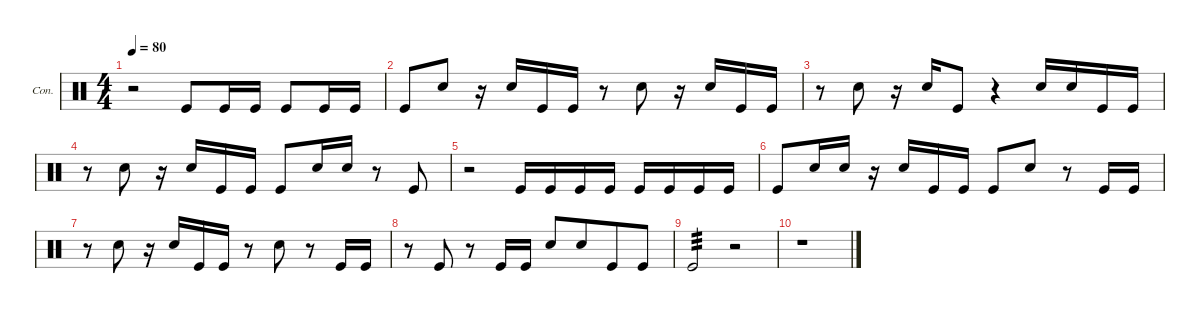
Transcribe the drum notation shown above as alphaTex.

\defaultSystemsLayout 4
\hideDynamics
\bracketExtendMode groupsimilarinstruments
\firstSystemTrackNameOrientation horizontal
\otherSystemsTrackNameOrientation horizontal
\track ("Congas" "Con.") {multiBarRest instrument percussion}
\staff {score}
\articulation defaults
\ts (4 4)
\tempo 80
\clef neutral
\ks c
r.2{dy mf} "Kick (hit)".8 "Kick (hit)".16 "Kick (hit)".16 "Kick (hit)".8 "Kick (hit)".16 "Kick (hit)".16 |
"Kick (hit)".8 "Snare (hit) 2".8 r.16 "Snare (hit) 2".16 "Kick (hit)".16 "Kick (hit)".16 r.8 "Snare (hit) 2".8 r.16 "Snare (hit) 2".16 "Kick (hit)".16 "Kick (hit)".16 |
r.8 "Snare (hit) 2".8 r.16 "Snare (hit) 2".16 "Kick (hit)".8 r.4 "Snare (hit) 2".16 "Snare (hit) 2".16 "Kick (hit)".16 "Kick (hit)".16 |
r.8 "Snare (hit) 2".8 r.16 "Snare (hit) 2".16 "Kick (hit)".16 "Kick (hit)".16 "Kick (hit)".8 "Snare (hit) 2".16 "Snare (hit) 2".16 r.8 "Kick (hit)".8 |
r.2 "Kick (hit)".16 "Kick (hit)".16 "Kick (hit)".16 "Kick (hit)".16 "Kick (hit)".16 "Kick (hit)".16 "Kick (hit)".16 "Kick (hit)".16 |
"Kick (hit)".8 "Snare (hit) 2".16 "Snare (hit) 2".16 r.16 "Snare (hit) 2".16 "Kick (hit)".16 "Kick (hit)".16 "Kick (hit)".8 "Snare (hit) 2".8 r.8 "Kick (hit)".16 "Kick (hit)".16 |
r.8 "Snare (hit) 2".8 r.16 "Snare (hit) 2".16 "Kick (hit)".16 "Kick (hit)".16 r.8 "Snare (hit) 2".8 r.8 "Kick (hit)".16 "Kick (hit)".16 |
r.8 "Kick (hit)".8 r.8 "Kick (hit)".16 "Kick (hit)".16 "Snare (hit) 2".8 "Snare (hit) 2".8{beam merge} "Kick (hit)".8 "Kick (hit)".8 |
"Kick (hit)".2{tp 3} r.2 |
r.1
